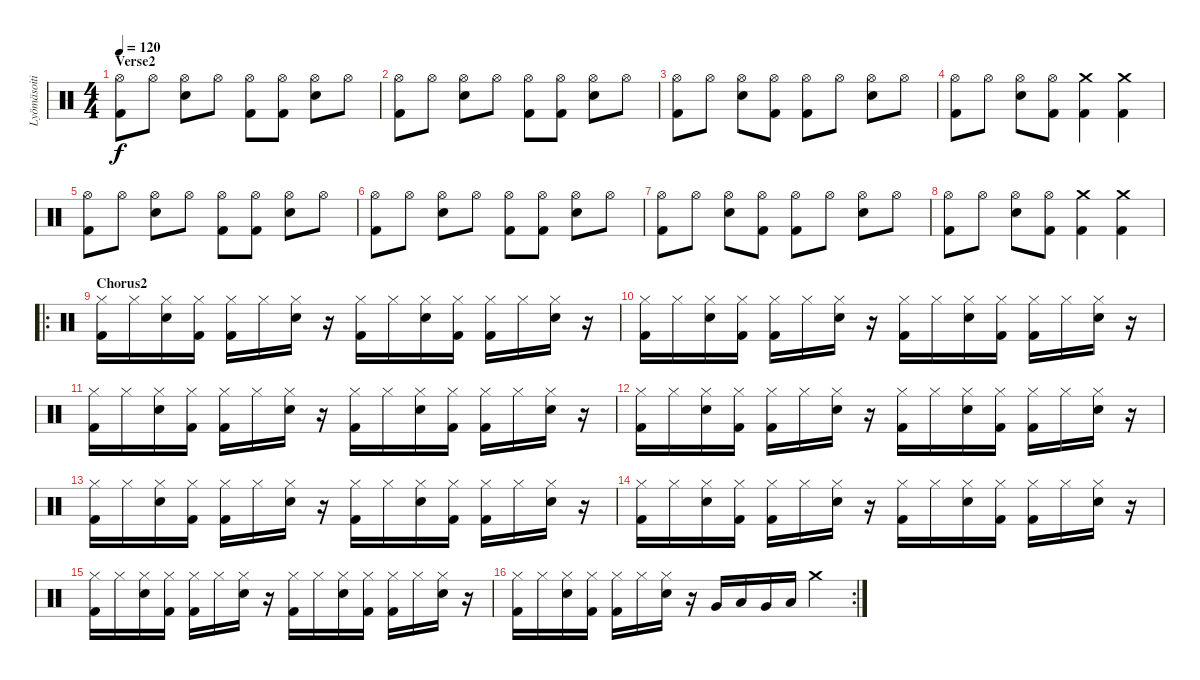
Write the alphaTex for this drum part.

\track ("Lyömäsoitin" "Lyömäsoiti") {instrument percussion}
\staff {score}
\articulation defaults
\ts (4 4)
\section ("" "Verse2")
\tempo 120
\clef neutral
\ks c
("Hi-Hat (open)" "Kick (hit) 2").8{dy f} "Hi-Hat (open)".8 ("Hi-Hat (open)" "Electric Snare (hit)").8 "Hi-Hat (open)".8 ("Hi-Hat (open)" "Kick (hit) 2").8 ("Hi-Hat (open)" "Kick (hit) 2").8 ("Hi-Hat (open)" "Electric Snare (hit)").8 "Hi-Hat (open)".8 |
("Hi-Hat (open)" "Kick (hit) 2").8 "Hi-Hat (open)".8 ("Hi-Hat (open)" "Electric Snare (hit)").8 "Hi-Hat (open)".8 ("Hi-Hat (open)" "Kick (hit) 2").8 ("Hi-Hat (open)" "Kick (hit) 2").8 ("Hi-Hat (open)" "Electric Snare (hit)").8 "Hi-Hat (open)".8 |
("Hi-Hat (open)" "Kick (hit) 2").8 "Hi-Hat (open)".8 ("Hi-Hat (open)" "Electric Snare (hit)").8 ("Hi-Hat (open)" "Kick (hit) 2").8 ("Hi-Hat (open)" "Kick (hit) 2").8 "Hi-Hat (open)".8 ("Hi-Hat (open)" "Electric Snare (hit)").8 "Hi-Hat (open)".8 |
("Hi-Hat (open)" "Kick (hit) 2").8 "Hi-Hat (open)".8 ("Hi-Hat (open)" "Electric Snare (hit)").8 ("Hi-Hat (open)" "Kick (hit) 2").8 ("Crash medium (hit)" "Kick (hit) 2").4 ("Crash medium (hit)" "Kick (hit) 2").4 |
("Hi-Hat (open)" "Kick (hit) 2").8 "Hi-Hat (open)".8 ("Hi-Hat (open)" "Electric Snare (hit)").8 "Hi-Hat (open)".8 ("Hi-Hat (open)" "Kick (hit) 2").8 ("Hi-Hat (open)" "Kick (hit) 2").8 ("Hi-Hat (open)" "Electric Snare (hit)").8 "Hi-Hat (open)".8 |
("Hi-Hat (open)" "Kick (hit) 2").8 "Hi-Hat (open)".8 ("Hi-Hat (open)" "Electric Snare (hit)").8 "Hi-Hat (open)".8 ("Hi-Hat (open)" "Kick (hit) 2").8 ("Hi-Hat (open)" "Kick (hit) 2").8 ("Hi-Hat (open)" "Electric Snare (hit)").8 "Hi-Hat (open)".8 |
("Hi-Hat (open)" "Kick (hit) 2").8 "Hi-Hat (open)".8 ("Hi-Hat (open)" "Electric Snare (hit)").8 ("Hi-Hat (open)" "Kick (hit) 2").8 ("Hi-Hat (open)" "Kick (hit) 2").8 "Hi-Hat (open)".8 ("Hi-Hat (open)" "Electric Snare (hit)").8 "Hi-Hat (open)".8 |
("Hi-Hat (open)" "Kick (hit) 2").8 "Hi-Hat (open)".8 ("Hi-Hat (open)" "Electric Snare (hit)").8 ("Hi-Hat (open)" "Kick (hit) 2").8 ("Crash medium (hit)" "Kick (hit) 2").4 ("Crash medium (hit)" "Kick (hit) 2").4 |
\ro
\section ("" "Chorus2")
("Hi-Hat (closed)" "Kick (hit) 2").16 "Hi-Hat (closed)".16 ("Hi-Hat (closed)" "Electric Snare (hit)").16 ("Hi-Hat (closed)" "Kick (hit) 2").16 ("Hi-Hat (closed)" "Kick (hit) 2").16 "Hi-Hat (closed)".16 ("Hi-Hat (closed)" "Electric Snare (hit)").16 r.16 ("Hi-Hat (closed)" "Kick (hit) 2").16 "Hi-Hat (closed)".16 ("Hi-Hat (closed)" "Electric Snare (hit)").16 ("Hi-Hat (closed)" "Kick (hit) 2").16 ("Hi-Hat (closed)" "Kick (hit) 2").16 "Hi-Hat (closed)".16 ("Hi-Hat (closed)" "Electric Snare (hit)").16 r.16 |
("Hi-Hat (closed)" "Kick (hit) 2").16 "Hi-Hat (closed)".16 ("Hi-Hat (closed)" "Electric Snare (hit)").16 ("Hi-Hat (closed)" "Kick (hit) 2").16 ("Hi-Hat (closed)" "Kick (hit) 2").16 "Hi-Hat (closed)".16 ("Hi-Hat (closed)" "Electric Snare (hit)").16 r.16 ("Hi-Hat (closed)" "Kick (hit) 2").16 "Hi-Hat (closed)".16 ("Hi-Hat (closed)" "Electric Snare (hit)").16 ("Hi-Hat (closed)" "Kick (hit) 2").16 ("Hi-Hat (closed)" "Kick (hit) 2").16 "Hi-Hat (closed)".16 ("Hi-Hat (closed)" "Electric Snare (hit)").16 r.16 |
("Hi-Hat (closed)" "Kick (hit) 2").16 "Hi-Hat (closed)".16 ("Hi-Hat (closed)" "Electric Snare (hit)").16 ("Hi-Hat (closed)" "Kick (hit) 2").16 ("Hi-Hat (closed)" "Kick (hit) 2").16 "Hi-Hat (closed)".16 ("Hi-Hat (closed)" "Electric Snare (hit)").16 r.16 ("Hi-Hat (closed)" "Kick (hit) 2").16 "Hi-Hat (closed)".16 ("Hi-Hat (closed)" "Electric Snare (hit)").16 ("Hi-Hat (closed)" "Kick (hit) 2").16 ("Hi-Hat (closed)" "Kick (hit) 2").16 "Hi-Hat (closed)".16 ("Hi-Hat (closed)" "Electric Snare (hit)").16 r.16 |
("Hi-Hat (closed)" "Kick (hit) 2").16 "Hi-Hat (closed)".16 ("Hi-Hat (closed)" "Electric Snare (hit)").16 ("Hi-Hat (closed)" "Kick (hit) 2").16 ("Hi-Hat (closed)" "Kick (hit) 2").16 "Hi-Hat (closed)".16 ("Hi-Hat (closed)" "Electric Snare (hit)").16 r.16 ("Hi-Hat (closed)" "Kick (hit) 2").16 "Hi-Hat (closed)".16 ("Hi-Hat (closed)" "Electric Snare (hit)").16 ("Hi-Hat (closed)" "Kick (hit) 2").16 ("Hi-Hat (closed)" "Kick (hit) 2").16 "Hi-Hat (closed)".16 ("Hi-Hat (closed)" "Electric Snare (hit)").16 r.16 |
("Hi-Hat (closed)" "Kick (hit) 2").16 "Hi-Hat (closed)".16 ("Hi-Hat (closed)" "Electric Snare (hit)").16 ("Hi-Hat (closed)" "Kick (hit) 2").16 ("Hi-Hat (closed)" "Kick (hit) 2").16 "Hi-Hat (closed)".16 ("Hi-Hat (closed)" "Electric Snare (hit)").16 r.16 ("Hi-Hat (closed)" "Kick (hit) 2").16 "Hi-Hat (closed)".16 ("Hi-Hat (closed)" "Electric Snare (hit)").16 ("Hi-Hat (closed)" "Kick (hit) 2").16 ("Hi-Hat (closed)" "Kick (hit) 2").16 "Hi-Hat (closed)".16 ("Hi-Hat (closed)" "Electric Snare (hit)").16 r.16 |
("Hi-Hat (closed)" "Kick (hit) 2").16 "Hi-Hat (closed)".16 ("Hi-Hat (closed)" "Electric Snare (hit)").16 ("Hi-Hat (closed)" "Kick (hit) 2").16 ("Hi-Hat (closed)" "Kick (hit) 2").16 "Hi-Hat (closed)".16 ("Hi-Hat (closed)" "Electric Snare (hit)").16 r.16 ("Hi-Hat (closed)" "Kick (hit) 2").16 "Hi-Hat (closed)".16 ("Hi-Hat (closed)" "Electric Snare (hit)").16 ("Hi-Hat (closed)" "Kick (hit) 2").16 ("Hi-Hat (closed)" "Kick (hit) 2").16 "Hi-Hat (closed)".16 ("Hi-Hat (closed)" "Electric Snare (hit)").16 r.16 |
("Hi-Hat (closed)" "Kick (hit) 2").16 "Hi-Hat (closed)".16 ("Hi-Hat (closed)" "Electric Snare (hit)").16 ("Hi-Hat (closed)" "Kick (hit) 2").16 ("Hi-Hat (closed)" "Kick (hit) 2").16 "Hi-Hat (closed)".16 ("Hi-Hat (closed)" "Electric Snare (hit)").16 r.16 ("Hi-Hat (closed)" "Kick (hit) 2").16 "Hi-Hat (closed)".16 ("Hi-Hat (closed)" "Electric Snare (hit)").16 ("Hi-Hat (closed)" "Kick (hit) 2").16 ("Hi-Hat (closed)" "Kick (hit) 2").16 "Hi-Hat (closed)".16 ("Hi-Hat (closed)" "Electric Snare (hit)").16 r.16 |
\rc 2
("Hi-Hat (closed)" "Kick (hit) 2").16 "Hi-Hat (closed)".16 ("Hi-Hat (closed)" "Electric Snare (hit)").16 ("Hi-Hat (closed)" "Kick (hit) 2").16 ("Hi-Hat (closed)" "Kick (hit) 2").16 "Hi-Hat (closed)".16 ("Hi-Hat (closed)" "Electric Snare (hit)").16 r.16 "Very Low Tom (hit)".16 "Low Floor Tom (hit)".16 "Very Low Tom (hit)".16 "Low Floor Tom (hit)".16 "Crash medium (hit)".4
